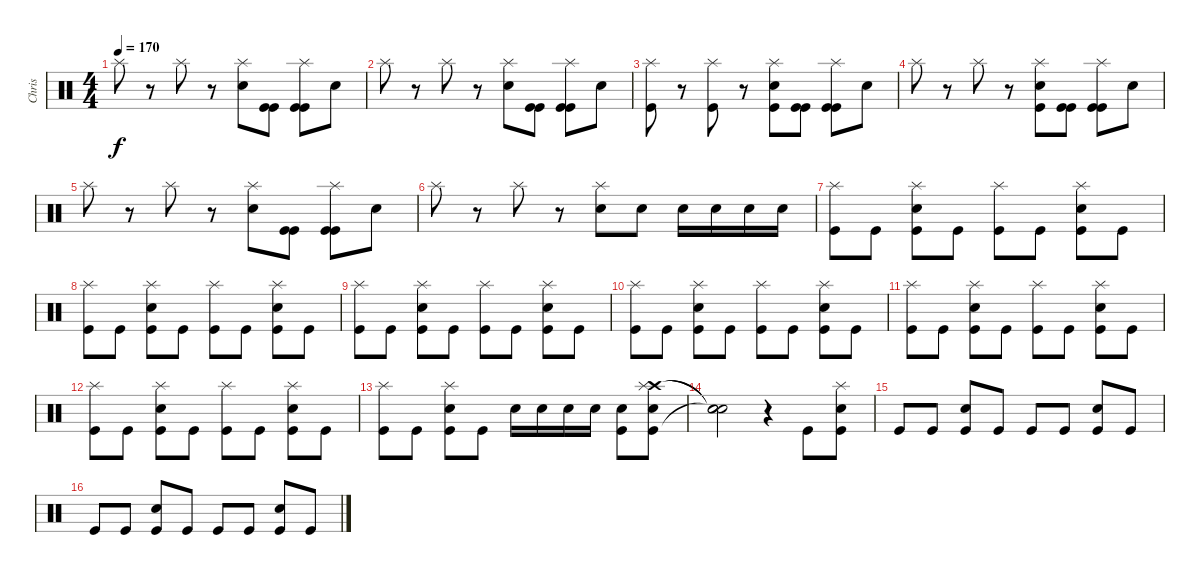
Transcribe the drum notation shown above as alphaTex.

\track ("Chris" "Chris") {instrument percussion}
\staff {score}
\articulation defaults
\ts (4 4)
\tempo 170
\clef neutral
\ks c "Splash (hit)".8{dy f}
r.8 "Splash (hit)".8 r.8 ("Splash (hit)" "Snare (hit) 2").8 ("Kick (hit)" "Kick (hit)").8 ("Kick (hit)" "Splash (hit)" "Kick (hit)").8 "Snare (hit) 2".8 |
"Splash (hit)".8 r.8 "Splash (hit)".8 r.8 ("Splash (hit)" "Snare (hit) 2").8 ("Kick (hit)" "Kick (hit)").8 ("Kick (hit)" "Splash (hit)" "Kick (hit)").8 "Snare (hit) 2".8 |
("Kick (hit)" "Splash (hit)").8 r.8 ("Kick (hit)" "Splash (hit)").8 r.8 ("Kick (hit)" "Splash (hit)" "Snare (hit) 2").8 ("Kick (hit)" "Kick (hit)").8 ("Kick (hit)" "Splash (hit)" "Kick (hit)").8 "Snare (hit) 2".8 |
"Splash (hit)".8 r.8 "Splash (hit)".8 r.8 ("Kick (hit)" "Splash (hit)" "Snare (hit) 2").8 ("Kick (hit)" "Kick (hit)").8 ("Kick (hit)" "Splash (hit)" "Kick (hit)").8 "Snare (hit) 2".8 |
"Splash (hit)".8 r.8 "Splash (hit)".8 r.8 ("Splash (hit)" "Snare (hit) 2").8 ("Kick (hit)" "Kick (hit)").8 ("Kick (hit)" "Splash (hit)" "Kick (hit)").8 "Snare (hit) 2".8 |
"Splash (hit)".8 r.8 "Splash (hit)".8 r.8 ("Splash (hit)" "Snare (hit) 2").8 "Snare (hit) 2".8 "Electric Snare (hit)".16 "Electric Snare (hit)".16 "Electric Snare (hit)".16 "Electric Snare (hit)".16 |
("Kick (hit)" "Splash (hit)").8 "Kick (hit)".8 ("Kick (hit)" "Splash (hit)" "Snare (hit) 2").8 "Kick (hit)".8 ("Kick (hit)" "Splash (hit)").8 "Kick (hit)".8 ("Kick (hit)" "Splash (hit)" "Snare (hit) 2").8 "Kick (hit)".8 |
("Kick (hit)" "Splash (hit)").8 "Kick (hit)".8 ("Kick (hit)" "Splash (hit)" "Snare (hit) 2").8 "Kick (hit)".8 ("Kick (hit)" "Splash (hit)").8 "Kick (hit)".8 ("Kick (hit)" "Splash (hit)" "Snare (hit) 2").8 "Kick (hit)".8 |
("Kick (hit)" "Splash (hit)").8 "Kick (hit)".8 ("Kick (hit)" "Splash (hit)" "Snare (hit) 2").8 "Kick (hit)".8 ("Kick (hit)" "Splash (hit)").8 "Kick (hit)".8 ("Kick (hit)" "Splash (hit)" "Snare (hit) 2").8 "Kick (hit)".8 |
("Kick (hit)" "Splash (hit)").8 "Kick (hit)".8 ("Kick (hit)" "Splash (hit)" "Snare (hit) 2").8 "Kick (hit)".8 ("Kick (hit)" "Splash (hit)").8 "Kick (hit)".8 ("Kick (hit)" "Splash (hit)" "Snare (hit) 2").8 "Kick (hit)".8 |
("Kick (hit)" "Splash (hit)").8 "Kick (hit)".8 ("Kick (hit)" "Splash (hit)" "Snare (hit) 2").8 "Kick (hit)".8 ("Kick (hit)" "Splash (hit)").8 "Kick (hit)".8 ("Kick (hit)" "Splash (hit)" "Snare (hit) 2").8 "Kick (hit)".8 |
("Kick (hit)" "Splash (hit)").8 "Kick (hit)".8 ("Kick (hit)" "Splash (hit)" "Snare (hit) 2").8 "Kick (hit)".8 ("Kick (hit)" "Splash (hit)").8 "Kick (hit)".8 ("Kick (hit)" "Splash (hit)" "Snare (hit) 2").8 "Kick (hit)".8 |
("Kick (hit)" "Splash (hit)").8 "Kick (hit)".8 ("Kick (hit)" "Splash (hit)" "Snare (hit) 2").8 "Kick (hit)".8 "Electric Snare (hit)".16 "Electric Snare (hit)".16 "Electric Snare (hit)".16 "Electric Snare (hit)".16 ("Kick (hit)" "Snare (hit) 2").8 ("Kick (hit)" "Crash high (hit)" "Splash (hit)" "Snare (hit) 2").8 |
("Snare (hit)"{t} "Snare (hit)"{t} "Snare (hit)"{t}).2 r.4 "Kick (hit)".8 ("Kick (hit)" "Splash (hit)" "Snare (hit) 2").8 |
"Kick (hit)".8 "Kick (hit)".8 ("Kick (hit)" "Snare (hit) 2").8 "Kick (hit)".8 "Kick (hit)".8 "Kick (hit)".8 ("Kick (hit)" "Snare (hit) 2").8 "Kick (hit)".8 |
"Kick (hit)".8 "Kick (hit)".8 ("Kick (hit)" "Snare (hit) 2").8 "Kick (hit)".8 "Kick (hit)".8 "Kick (hit)".8 ("Kick (hit)" "Snare (hit) 2").8 "Kick (hit)".8
